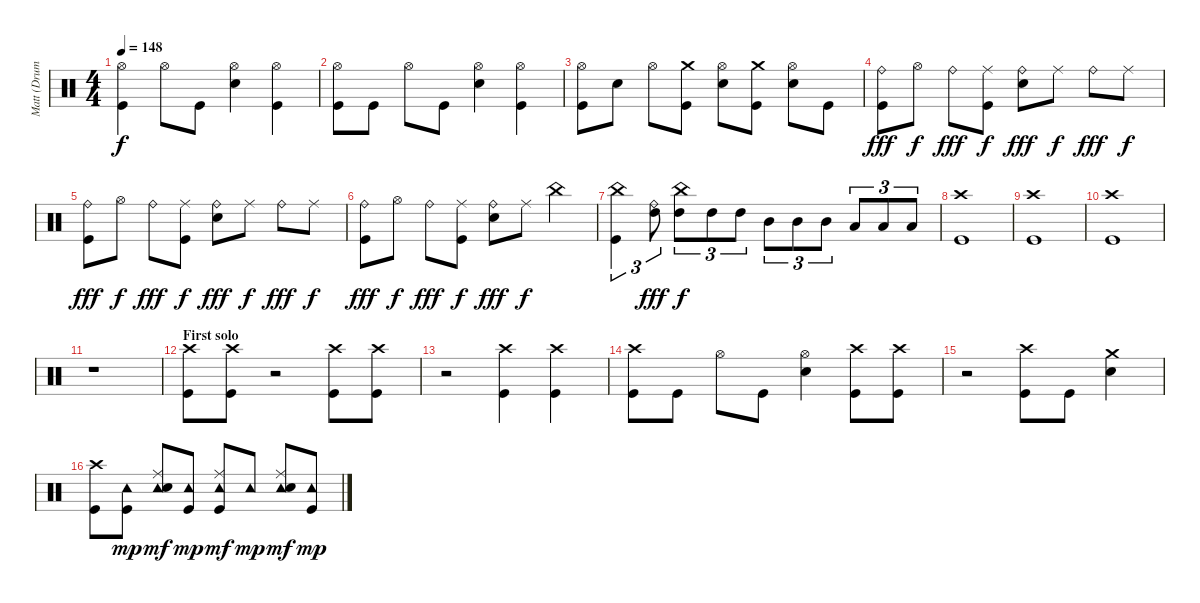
\track ("Matt (Drums)" "Matt (Drum") {instrument percussion}
\staff {score}
\articulation defaults
\ts (4 4)
\tempo 148
\clef neutral
\ks c
("Hi-Hat (open)" "Kick (hit)").4{dy f} "Hi-Hat (open)".8 "Kick (hit)".8 ("Hi-Hat (open)" "Electric Snare (hit)").4 ("Hi-Hat (open)" "Kick (hit)").4 |
("Hi-Hat (open)" "Kick (hit)").8 "Kick (hit)".8 "Hi-Hat (open)".8 "Kick (hit)".8 ("Hi-Hat (open)" "Electric Snare (hit)").4 ("Hi-Hat (open)" "Kick (hit)").4 |
("Hi-Hat (open)" "Kick (hit)").8 "Electric Snare (hit)".8 "Hi-Hat (open)".8 ("Crash medium (hit)" "Kick (hit)").8 ("Hi-Hat (open)" "Electric Snare (hit)").8 ("Crash medium (hit)" "Kick (hit)").8 ("Hi-Hat (open)" "Electric Snare (hit)").8 "Kick (hit)".8 |
("Ride (bell)" "Kick (hit)").8{dy fff} "Hi-Hat (open)".8{dy f} "Ride (bell)".8{dy fff} ("Ride (middle)" "Kick (hit)").8{dy f} ("Ride (bell)" "Electric Snare (hit)").8{dy fff} "Ride (middle)".8{dy f} "Ride (bell)".8{dy fff} "Ride (middle)".8{dy f} |
("Ride (bell)" "Kick (hit)").8{dy fff} "Hi-Hat (open)".8{dy f} "Ride (bell)".8{dy fff} ("Ride (middle)" "Kick (hit)").8{dy f} ("Ride (bell)" "Electric Snare (hit)").8{dy fff} "Ride (middle)".8{dy f} "Ride (bell)".8{dy fff} "Ride (middle)".8{dy f} |
("Ride (bell)" "Kick (hit)").8{dy fff} "Hi-Hat (open)".8{dy f} "Ride (bell)".8{dy fff} ("Ride (middle)" "Kick (hit)").8{dy f} ("Ride (bell)" "Electric Snare (hit)").8{dy fff} "Ride (middle)".8{dy f} "China (hit)".4 |
("China (hit)" "Kick (hit)").4{tu (3 2)} ("Ride (bell)" "High Tom (hit)").8{tu (3 2) dy fff} ("China (hit)" "High Tom (hit)").8{tu (3 2) dy f} "High Tom (hit)".8{tu (3 2)} "High Tom (hit)".8{tu (3 2)} "Mid Tom (hit)".8{tu (3 2)} "Mid Tom (hit)".8{tu (3 2)} "Mid Tom (hit)".8{tu (3 2)} "Low Tom (hit)".8{tu (3 2)} "Low Tom (hit)".8{tu (3 2)} "Low Tom (hit)".8{tu (3 2)} |
("Crash high (hit)" "Kick (hit)").1 |
("Crash high (hit)" "Kick (hit)").1 |
("Crash high (hit)" "Kick (hit)").1 |
r.1 |
\section ("" "First solo")
("Crash high (hit)" "Kick (hit)").8 ("Crash high (hit)" "Kick (hit)").8 r.2 ("Crash high (hit)" "Kick (hit)").8 ("Crash high (hit)" "Kick (hit)").8 |
r.2 ("Crash high (hit)" "Kick (hit)").4 ("Crash high (hit)" "Kick (hit)").4 |
("Crash high (hit)" "Kick (hit)").8 "Kick (hit)".8 "Hi-Hat (open)".8 "Kick (hit)".8 ("Hi-Hat (open)" "Electric Snare (hit)").4 ("Crash high (hit)" "Kick (hit)").8 ("Crash high (hit)" "Kick (hit)").8 |
r.2 ("Crash high (hit)" "Kick (hit)").8 "Kick (hit)".8 ("Crash medium (hit)" "Electric Snare (hit)").4 |
("Crash high (hit)" "Kick (hit)").8 ("Tambourine (hit)" "Kick (hit)").8{dy mp} ("Ride (middle)" "Tambourine (hit)" "Electric Snare (hit)").8{dy mf} ("Tambourine (hit)" "Kick (hit)").8{dy mp} ("Ride (middle)" "Tambourine (hit)" "Kick (hit)").8{dy mf} "Tambourine (hit)".8{dy mp} ("Ride (middle)" "Tambourine (hit)" "Electric Snare (hit)").8{dy mf} ("Tambourine (hit)" "Kick (hit)").8{dy mp}
